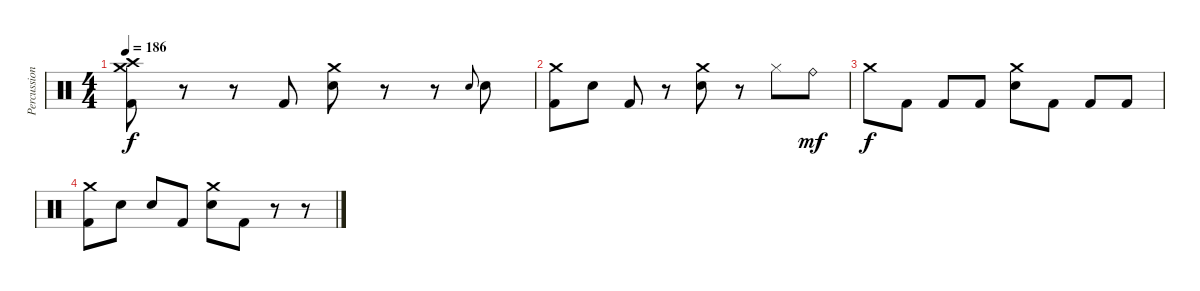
\track ("Percussion" "Percussion") {instrument percussion}
\staff {score}
\articulation defaults
\ts (4 4)
\tempo 186
\clef neutral
\ks c
("Crash high (hit)" "Crash medium (hit)" "Kick (hit) 2").8{dy f} r.8 r.8 "Kick (hit) 2".8 ("Crash medium (hit)" "Electric Snare (hit)").8 r.8 r.8 "Electric Snare (hit)".8{gr onbeat} "Electric Snare (hit)".8 |
("Crash medium (hit)" "Kick (hit) 2").8 "Electric Snare (hit)".8 "Kick (hit) 2".8 r.8 ("Crash medium (hit)" "Electric Snare (hit)").8 r.8 "Hi-Hat (closed)".8 "Ride (bell)".8{dy mf} |
"Crash medium (hit)".8{dy f} "Kick (hit) 2".8 "Kick (hit) 2".8 "Kick (hit) 2".8 ("Crash medium (hit)" "Electric Snare (hit)").8 "Kick (hit) 2".8 "Kick (hit) 2".8 "Kick (hit) 2".8 |
("Crash medium (hit)" "Kick (hit) 2").8 "Electric Snare (hit)".8 "Electric Snare (hit)".8 "Kick (hit) 2".8 ("Crash medium (hit)" "Electric Snare (hit)").8 "Kick (hit) 2".8 r.8 r.8
